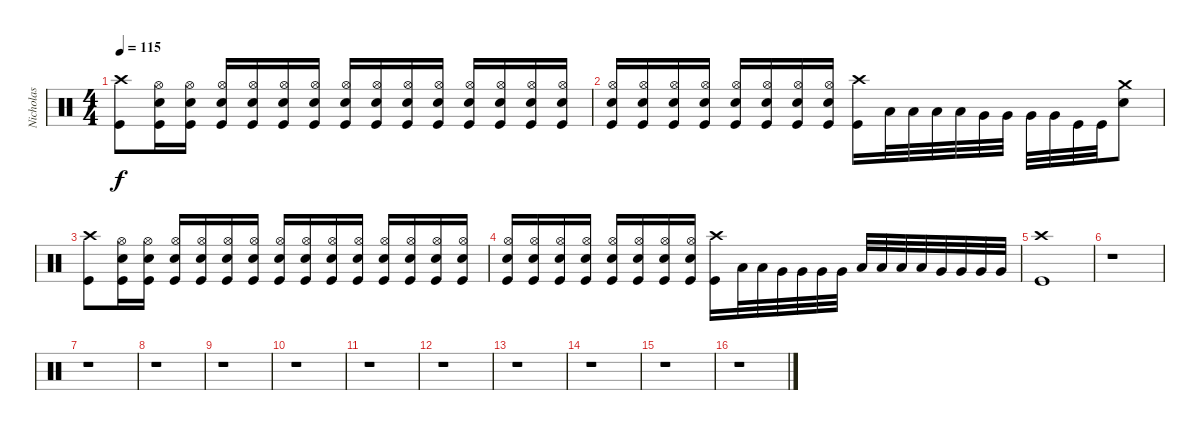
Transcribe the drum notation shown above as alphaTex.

\track ("Nicholas" "Nicholas") {instrument percussion}
\staff {score}
\articulation defaults
\ts (4 4)
\tempo 115
\clef neutral
\ks c
("Crash high (hit)" "Kick (hit)").8{dy f} ("Hi-Hat (open)" "Electric Snare (hit)" "Kick (hit)").16 ("Hi-Hat (open)" "Electric Snare (hit)" "Kick (hit)").16 ("Hi-Hat (open)" "Electric Snare (hit)" "Kick (hit)").16 ("Hi-Hat (open)" "Electric Snare (hit)" "Kick (hit)").16 ("Hi-Hat (open)" "Electric Snare (hit)" "Kick (hit)").16 ("Hi-Hat (open)" "Electric Snare (hit)" "Kick (hit)").16 ("Hi-Hat (open)" "Electric Snare (hit)" "Kick (hit)").16 ("Hi-Hat (open)" "Electric Snare (hit)" "Kick (hit)").16 ("Hi-Hat (open)" "Electric Snare (hit)" "Kick (hit)").16 ("Hi-Hat (open)" "Electric Snare (hit)" "Kick (hit)").16 ("Hi-Hat (open)" "Electric Snare (hit)" "Kick (hit)").16 ("Hi-Hat (open)" "Electric Snare (hit)" "Kick (hit)").16 ("Hi-Hat (open)" "Electric Snare (hit)" "Kick (hit)").16 ("Hi-Hat (open)" "Electric Snare (hit)" "Kick (hit)").16 |
("Hi-Hat (open)" "Electric Snare (hit)" "Kick (hit)").16 ("Hi-Hat (open)" "Electric Snare (hit)" "Kick (hit)").16 ("Hi-Hat (open)" "Electric Snare (hit)" "Kick (hit)").16 ("Hi-Hat (open)" "Electric Snare (hit)" "Kick (hit)").16 ("Hi-Hat (open)" "Electric Snare (hit)" "Kick (hit)").16 ("Hi-Hat (open)" "Electric Snare (hit)" "Kick (hit)").16 ("Hi-Hat (open)" "Electric Snare (hit)" "Kick (hit)").16 ("Hi-Hat (open)" "Electric Snare (hit)" "Kick (hit)").16 ("Crash high (hit)" "Kick (hit)").16 "Low Tom (hit)".32 "Low Tom (hit)".32 "Low Tom (hit)".32 "Low Tom (hit)".32 "Very Low Tom (hit)".32 "Very Low Tom (hit)".32 "Very Low Tom (hit)".32 "Very Low Tom (hit)".32 "Kick (hit)".32 "Kick (hit)".32 ("Crash medium (hit)" "Electric Snare (hit)").8 |
("Crash high (hit)" "Kick (hit)").8 ("Hi-Hat (open)" "Electric Snare (hit)" "Kick (hit)").16 ("Hi-Hat (open)" "Electric Snare (hit)" "Kick (hit)").16 ("Hi-Hat (open)" "Electric Snare (hit)" "Kick (hit)").16 ("Hi-Hat (open)" "Electric Snare (hit)" "Kick (hit)").16 ("Hi-Hat (open)" "Electric Snare (hit)" "Kick (hit)").16 ("Hi-Hat (open)" "Electric Snare (hit)" "Kick (hit)").16 ("Hi-Hat (open)" "Electric Snare (hit)" "Kick (hit)").16 ("Hi-Hat (open)" "Electric Snare (hit)" "Kick (hit)").16 ("Hi-Hat (open)" "Electric Snare (hit)" "Kick (hit)").16 ("Hi-Hat (open)" "Electric Snare (hit)" "Kick (hit)").16 ("Hi-Hat (open)" "Electric Snare (hit)" "Kick (hit)").16 ("Hi-Hat (open)" "Electric Snare (hit)" "Kick (hit)").16 ("Hi-Hat (open)" "Electric Snare (hit)" "Kick (hit)").16 ("Hi-Hat (open)" "Electric Snare (hit)" "Kick (hit)").16 |
("Hi-Hat (open)" "Electric Snare (hit)" "Kick (hit)").16 ("Hi-Hat (open)" "Electric Snare (hit)" "Kick (hit)").16 ("Hi-Hat (open)" "Electric Snare (hit)" "Kick (hit)").16 ("Hi-Hat (open)" "Electric Snare (hit)" "Kick (hit)").16 ("Hi-Hat (open)" "Electric Snare (hit)" "Kick (hit)").16 ("Hi-Hat (open)" "Electric Snare (hit)" "Kick (hit)").16 ("Hi-Hat (open)" "Electric Snare (hit)" "Kick (hit)").16 ("Hi-Hat (open)" "Electric Snare (hit)" "Kick (hit)").16 ("Crash high (hit)" "Kick (hit)").16 "Low Floor Tom (hit)".32 "Low Floor Tom (hit)".32 "Very Low Tom (hit)".32 "Very Low Tom (hit)".32 "Very Low Tom (hit)".32 "Very Low Tom (hit)".32 "Low Tom (hit)".32 "Low Tom (hit)".32 "Low Tom (hit)".32 "Low Tom (hit)".32 "Very Low Tom (hit)".32 "Very Low Tom (hit)".32 "Very Low Tom (hit)".32 "Very Low Tom (hit)".32 |
("Crash high (hit)" "Kick (hit)").1 |
r.1 |
r.1 |
r.1 |
r.1 |
r.1 |
r.1 |
r.1 |
r.1 |
r.1 |
r.1 |
r.1
